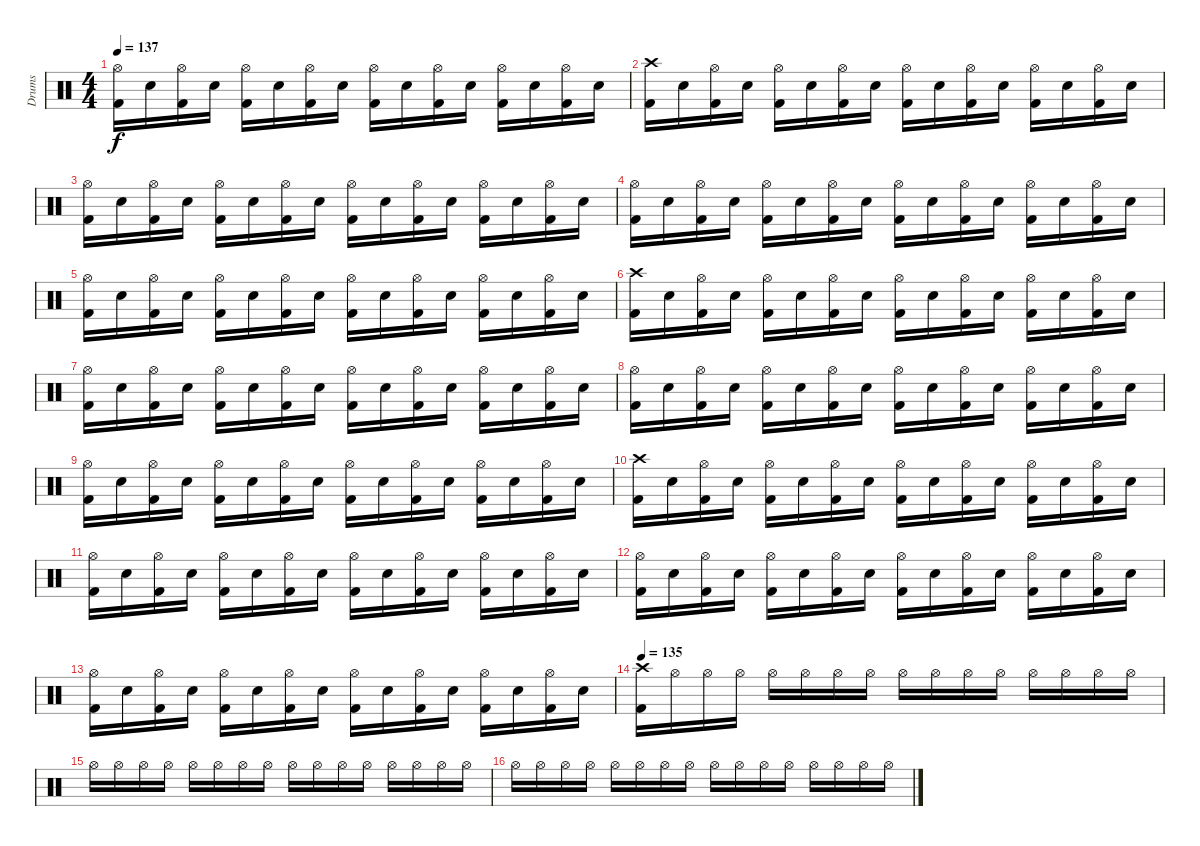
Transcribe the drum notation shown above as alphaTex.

\track ("Drums" "Drums") {instrument percussion}
\staff {score}
\articulation defaults
\ts (4 4)
\tempo 137
\clef neutral
\ks c
("Hi-Hat (open)" "Kick (hit) 2").16{dy f} "Electric Snare (hit)".16 ("Hi-Hat (open)" "Kick (hit) 2").16 "Electric Snare (hit)".16 ("Hi-Hat (open)" "Kick (hit) 2").16 "Electric Snare (hit)".16 ("Hi-Hat (open)" "Kick (hit) 2").16 "Electric Snare (hit)".16 ("Hi-Hat (open)" "Kick (hit) 2").16 "Electric Snare (hit)".16 ("Hi-Hat (open)" "Kick (hit) 2").16 "Electric Snare (hit)".16 ("Hi-Hat (open)" "Kick (hit) 2").16 "Electric Snare (hit)".16 ("Hi-Hat (open)" "Kick (hit) 2").16 "Electric Snare (hit)".16 |
("Crash high (hit)" "Kick (hit) 2").16 "Electric Snare (hit)".16 ("Hi-Hat (open)" "Kick (hit) 2").16 "Electric Snare (hit)".16 ("Hi-Hat (open)" "Kick (hit) 2").16 "Electric Snare (hit)".16 ("Hi-Hat (open)" "Kick (hit) 2").16 "Electric Snare (hit)".16 ("Hi-Hat (open)" "Kick (hit) 2").16 "Electric Snare (hit)".16 ("Hi-Hat (open)" "Kick (hit) 2").16 "Electric Snare (hit)".16 ("Hi-Hat (open)" "Kick (hit) 2").16 "Electric Snare (hit)".16 ("Hi-Hat (open)" "Kick (hit) 2").16 "Electric Snare (hit)".16 |
("Hi-Hat (open)" "Kick (hit) 2").16 "Electric Snare (hit)".16 ("Hi-Hat (open)" "Kick (hit) 2").16 "Electric Snare (hit)".16 ("Hi-Hat (open)" "Kick (hit) 2").16 "Electric Snare (hit)".16 ("Hi-Hat (open)" "Kick (hit) 2").16 "Electric Snare (hit)".16 ("Hi-Hat (open)" "Kick (hit) 2").16 "Electric Snare (hit)".16 ("Hi-Hat (open)" "Kick (hit) 2").16 "Electric Snare (hit)".16 ("Hi-Hat (open)" "Kick (hit) 2").16 "Electric Snare (hit)".16 ("Hi-Hat (open)" "Kick (hit) 2").16 "Electric Snare (hit)".16 |
("Hi-Hat (open)" "Kick (hit) 2").16 "Electric Snare (hit)".16 ("Hi-Hat (open)" "Kick (hit) 2").16 "Electric Snare (hit)".16 ("Hi-Hat (open)" "Kick (hit) 2").16 "Electric Snare (hit)".16 ("Hi-Hat (open)" "Kick (hit) 2").16 "Electric Snare (hit)".16 ("Hi-Hat (open)" "Kick (hit) 2").16 "Electric Snare (hit)".16 ("Hi-Hat (open)" "Kick (hit) 2").16 "Electric Snare (hit)".16 ("Hi-Hat (open)" "Kick (hit) 2").16 "Electric Snare (hit)".16 ("Hi-Hat (open)" "Kick (hit) 2").16 "Electric Snare (hit)".16 |
("Hi-Hat (open)" "Kick (hit) 2").16 "Electric Snare (hit)".16 ("Hi-Hat (open)" "Kick (hit) 2").16 "Electric Snare (hit)".16 ("Hi-Hat (open)" "Kick (hit) 2").16 "Electric Snare (hit)".16 ("Hi-Hat (open)" "Kick (hit) 2").16 "Electric Snare (hit)".16 ("Hi-Hat (open)" "Kick (hit) 2").16 "Electric Snare (hit)".16 ("Hi-Hat (open)" "Kick (hit) 2").16 "Electric Snare (hit)".16 ("Hi-Hat (open)" "Kick (hit) 2").16 "Electric Snare (hit)".16 ("Hi-Hat (open)" "Kick (hit) 2").16 "Electric Snare (hit)".16 |
("Crash high (hit)" "Kick (hit) 2").16 "Electric Snare (hit)".16 ("Hi-Hat (open)" "Kick (hit) 2").16 "Electric Snare (hit)".16 ("Hi-Hat (open)" "Kick (hit) 2").16 "Electric Snare (hit)".16 ("Hi-Hat (open)" "Kick (hit) 2").16 "Electric Snare (hit)".16 ("Hi-Hat (open)" "Kick (hit) 2").16 "Electric Snare (hit)".16 ("Hi-Hat (open)" "Kick (hit) 2").16 "Electric Snare (hit)".16 ("Hi-Hat (open)" "Kick (hit) 2").16 "Electric Snare (hit)".16 ("Hi-Hat (open)" "Kick (hit) 2").16 "Electric Snare (hit)".16 |
("Hi-Hat (open)" "Kick (hit) 2").16 "Electric Snare (hit)".16 ("Hi-Hat (open)" "Kick (hit) 2").16 "Electric Snare (hit)".16 ("Hi-Hat (open)" "Kick (hit) 2").16 "Electric Snare (hit)".16 ("Hi-Hat (open)" "Kick (hit) 2").16 "Electric Snare (hit)".16 ("Hi-Hat (open)" "Kick (hit) 2").16 "Electric Snare (hit)".16 ("Hi-Hat (open)" "Kick (hit) 2").16 "Electric Snare (hit)".16 ("Hi-Hat (open)" "Kick (hit) 2").16 "Electric Snare (hit)".16 ("Hi-Hat (open)" "Kick (hit) 2").16 "Electric Snare (hit)".16 |
("Hi-Hat (open)" "Kick (hit) 2").16 "Electric Snare (hit)".16 ("Hi-Hat (open)" "Kick (hit) 2").16 "Electric Snare (hit)".16 ("Hi-Hat (open)" "Kick (hit) 2").16 "Electric Snare (hit)".16 ("Hi-Hat (open)" "Kick (hit) 2").16 "Electric Snare (hit)".16 ("Hi-Hat (open)" "Kick (hit) 2").16 "Electric Snare (hit)".16 ("Hi-Hat (open)" "Kick (hit) 2").16 "Electric Snare (hit)".16 ("Hi-Hat (open)" "Kick (hit) 2").16 "Electric Snare (hit)".16 ("Hi-Hat (open)" "Kick (hit) 2").16 "Electric Snare (hit)".16 |
("Hi-Hat (open)" "Kick (hit) 2").16 "Electric Snare (hit)".16 ("Hi-Hat (open)" "Kick (hit) 2").16 "Electric Snare (hit)".16 ("Hi-Hat (open)" "Kick (hit) 2").16 "Electric Snare (hit)".16 ("Hi-Hat (open)" "Kick (hit) 2").16 "Electric Snare (hit)".16 ("Hi-Hat (open)" "Kick (hit) 2").16 "Electric Snare (hit)".16 ("Hi-Hat (open)" "Kick (hit) 2").16 "Electric Snare (hit)".16 ("Hi-Hat (open)" "Kick (hit) 2").16 "Electric Snare (hit)".16 ("Hi-Hat (open)" "Kick (hit) 2").16 "Electric Snare (hit)".16 |
("Crash high (hit)" "Kick (hit) 2").16 "Electric Snare (hit)".16 ("Hi-Hat (open)" "Kick (hit) 2").16 "Electric Snare (hit)".16 ("Hi-Hat (open)" "Kick (hit) 2").16 "Electric Snare (hit)".16 ("Hi-Hat (open)" "Kick (hit) 2").16 "Electric Snare (hit)".16 ("Hi-Hat (open)" "Kick (hit) 2").16 "Electric Snare (hit)".16 ("Hi-Hat (open)" "Kick (hit) 2").16 "Electric Snare (hit)".16 ("Hi-Hat (open)" "Kick (hit) 2").16 "Electric Snare (hit)".16 ("Hi-Hat (open)" "Kick (hit) 2").16 "Electric Snare (hit)".16 |
("Hi-Hat (open)" "Kick (hit) 2").16 "Electric Snare (hit)".16 ("Hi-Hat (open)" "Kick (hit) 2").16 "Electric Snare (hit)".16 ("Hi-Hat (open)" "Kick (hit) 2").16 "Electric Snare (hit)".16 ("Hi-Hat (open)" "Kick (hit) 2").16 "Electric Snare (hit)".16 ("Hi-Hat (open)" "Kick (hit) 2").16 "Electric Snare (hit)".16 ("Hi-Hat (open)" "Kick (hit) 2").16 "Electric Snare (hit)".16 ("Hi-Hat (open)" "Kick (hit) 2").16 "Electric Snare (hit)".16 ("Hi-Hat (open)" "Kick (hit) 2").16 "Electric Snare (hit)".16 |
("Hi-Hat (open)" "Kick (hit) 2").16 "Electric Snare (hit)".16 ("Hi-Hat (open)" "Kick (hit) 2").16 "Electric Snare (hit)".16 ("Hi-Hat (open)" "Kick (hit) 2").16 "Electric Snare (hit)".16 ("Hi-Hat (open)" "Kick (hit) 2").16 "Electric Snare (hit)".16 ("Hi-Hat (open)" "Kick (hit) 2").16 "Electric Snare (hit)".16 ("Hi-Hat (open)" "Kick (hit) 2").16 "Electric Snare (hit)".16 ("Hi-Hat (open)" "Kick (hit) 2").16 "Electric Snare (hit)".16 ("Hi-Hat (open)" "Kick (hit) 2").16 "Electric Snare (hit)".16 |
("Hi-Hat (open)" "Kick (hit) 2").16 "Electric Snare (hit)".16 ("Hi-Hat (open)" "Kick (hit) 2").16 "Electric Snare (hit)".16 ("Hi-Hat (open)" "Kick (hit) 2").16 "Electric Snare (hit)".16 ("Hi-Hat (open)" "Kick (hit) 2").16 "Electric Snare (hit)".16 ("Hi-Hat (open)" "Kick (hit) 2").16 "Electric Snare (hit)".16 ("Hi-Hat (open)" "Kick (hit) 2").16 "Electric Snare (hit)".16 ("Hi-Hat (open)" "Kick (hit) 2").16 "Electric Snare (hit)".16 ("Hi-Hat (open)" "Kick (hit) 2").16 "Electric Snare (hit)".16 |
\tempo 130
\tempo 135
("Crash high (hit)" "Kick (hit) 2").16 "Hi-Hat (open)".16{volume 11} "Hi-Hat (open)".16{volume 7} "Hi-Hat (open)".16{volume 6} "Hi-Hat (open)".16{volume 13} "Hi-Hat (open)".16{volume 10} "Hi-Hat (open)".16{volume 8} "Hi-Hat (open)".16{volume 7} "Hi-Hat (open)".16{volume 13} "Hi-Hat (open)".16{volume 10} "Hi-Hat (open)".16{volume 8} "Hi-Hat (open)".16{volume 6} "Hi-Hat (open)".16{volume 13} "Hi-Hat (open)".16{volume 10} "Hi-Hat (open)".16{volume 9} "Hi-Hat (open)".16{volume 7} |
"Hi-Hat (open)".16{volume 13} "Hi-Hat (open)".16{volume 11} "Hi-Hat (open)".16{volume 7} "Hi-Hat (open)".16{volume 6} "Hi-Hat (open)".16{volume 13} "Hi-Hat (open)".16{volume 10} "Hi-Hat (open)".16{volume 8} "Hi-Hat (open)".16{volume 7} "Hi-Hat (open)".16{volume 13} "Hi-Hat (open)".16{volume 10} "Hi-Hat (open)".16{volume 8} "Hi-Hat (open)".16{volume 6} "Hi-Hat (open)".16{volume 13} "Hi-Hat (open)".16{volume 10} "Hi-Hat (open)".16{volume 9} "Hi-Hat (open)".16{volume 7} |
"Hi-Hat (open)".16{volume 13} "Hi-Hat (open)".16{volume 11} "Hi-Hat (open)".16{volume 7} "Hi-Hat (open)".16{volume 6} "Hi-Hat (open)".16{volume 13} "Hi-Hat (open)".16{volume 10} "Hi-Hat (open)".16{volume 8} "Hi-Hat (open)".16{volume 7} "Hi-Hat (open)".16{volume 13} "Hi-Hat (open)".16{volume 10} "Hi-Hat (open)".16{volume 8} "Hi-Hat (open)".16{volume 6} "Hi-Hat (open)".16{volume 13} "Hi-Hat (open)".16{volume 10} "Hi-Hat (open)".16{volume 9} "Hi-Hat (open)".16{volume 7}
